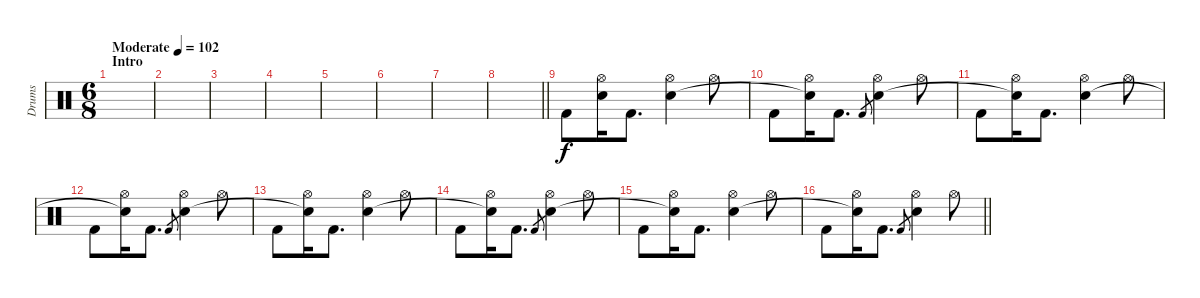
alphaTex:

\track ("Drums" "Drums") {instrument percussion}
\staff {score}
\articulation defaults
\ts (6 8)
\section ("" "Intro")
\tempo (102 "Moderate")
\clef neutral
\ks aminor
|
|
|
|
|
|
|
\barLineRight lightlight
|
"Kick (hit) 2".8 ("Hi-Hat (open)" "Snare (hit)").16 "Kick (hit) 2".8{d} ("Hi-Hat (open)" "Snare (hit) 2").4 "Hi-Hat (open)".8 |
"Kick (hit) 2".8 ("Hi-Hat (open)" "Snare (hit)"{t}).16 "Kick (hit) 2".8{d} "Kick (hit) 2".8{gr} ("Hi-Hat (open)" "Snare (hit) 2").4 "Hi-Hat (open)".8 |
"Kick (hit) 2".8 ("Hi-Hat (open)" "Snare (hit)"{t}).16 "Kick (hit) 2".8{d} ("Hi-Hat (open)" "Snare (hit) 2").4 "Hi-Hat (open)".8 |
"Kick (hit) 2".8 ("Hi-Hat (open)" "Snare (hit)"{t}).16 "Kick (hit) 2".8{d} "Kick (hit) 2".8{gr} ("Hi-Hat (open)" "Snare (hit) 2").4 "Hi-Hat (open)".8 |
"Kick (hit) 2".8 ("Hi-Hat (open)" "Snare (hit)"{t}).16 "Kick (hit) 2".8{d} ("Hi-Hat (open)" "Snare (hit) 2").4 "Hi-Hat (open)".8 |
"Kick (hit) 2".8 ("Hi-Hat (open)" "Snare (hit)"{t}).16 "Kick (hit) 2".8{d} "Kick (hit) 2".8{gr} ("Hi-Hat (open)" "Snare (hit) 2").4 "Hi-Hat (open)".8 |
"Kick (hit) 2".8 ("Hi-Hat (open)" "Snare (hit)"{t}).16 "Kick (hit) 2".8{d} ("Hi-Hat (open)" "Snare (hit) 2").4 "Hi-Hat (open)".8 |
\barLineRight lightlight "Kick (hit) 2".8
("Hi-Hat (open)" "Snare (hit)"{t}).16 "Kick (hit) 2".8{d} "Kick (hit) 2".8{gr} ("Hi-Hat (open)" "Snare (hit) 2").4 "Hi-Hat (open)".8
